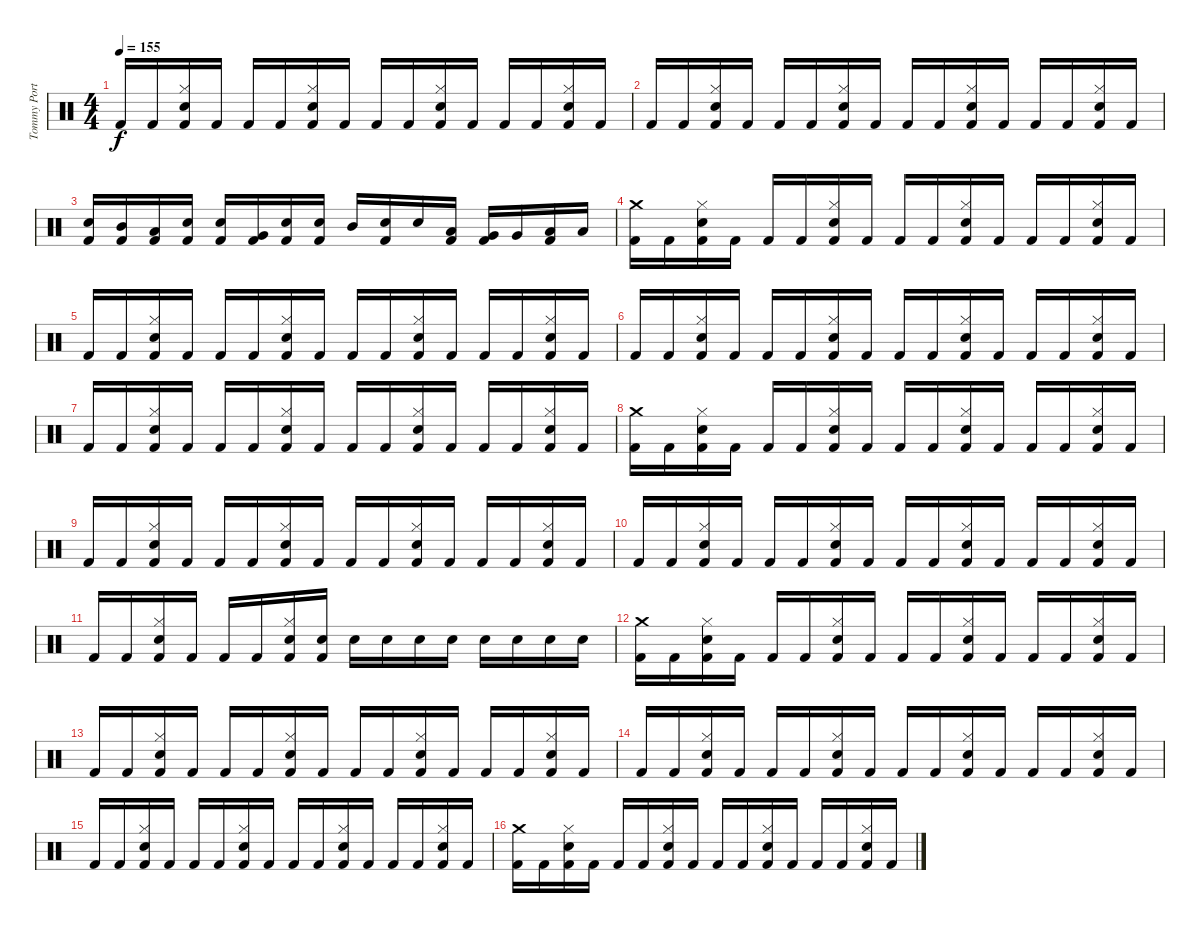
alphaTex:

\track ("Tommy Portino" "Tommy Port") {instrument percussion}
\staff {score}
\articulation defaults
\ts (4 4)
\tempo 155
\clef neutral
\ks c "Kick (hit) 2".16{dy f} "Kick (hit) 2".16
("Hi-Hat (closed)" "Electric Snare (hit)" "Kick (hit) 2").16 "Kick (hit) 2".16 "Kick (hit) 2".16 "Kick (hit) 2".16 ("Hi-Hat (closed)" "Electric Snare (hit)" "Kick (hit) 2").16 "Kick (hit) 2".16 "Kick (hit) 2".16 "Kick (hit) 2".16 ("Hi-Hat (closed)" "Electric Snare (hit)" "Kick (hit) 2").16 "Kick (hit) 2".16 "Kick (hit) 2".16 "Kick (hit) 2".16 ("Hi-Hat (closed)" "Electric Snare (hit)" "Kick (hit) 2").16 "Kick (hit) 2".16 |
"Kick (hit) 2".16 "Kick (hit) 2".16 ("Hi-Hat (closed)" "Electric Snare (hit)" "Kick (hit) 2").16 "Kick (hit) 2".16 "Kick (hit) 2".16 "Kick (hit) 2".16 ("Hi-Hat (closed)" "Electric Snare (hit)" "Kick (hit) 2").16 "Kick (hit) 2".16 "Kick (hit) 2".16 "Kick (hit) 2".16 ("Hi-Hat (closed)" "Electric Snare (hit)" "Kick (hit) 2").16 "Kick (hit) 2".16 "Kick (hit) 2".16 "Kick (hit) 2".16 ("Hi-Hat (closed)" "Electric Snare (hit)" "Kick (hit) 2").16 "Kick (hit) 2".16 |
("Electric Snare (hit)" "Kick (hit) 2").16 ("Mid Tom (hit)" "Kick (hit) 2").16 ("Low Tom (hit)" "Kick (hit) 2").16 ("Electric Snare (hit)" "Kick (hit) 2").16 ("Electric Snare (hit)" "Kick (hit) 2").16 ("Very Low Tom (hit)" "Kick (hit) 2").16 ("Electric Snare (hit)" "Kick (hit) 2").16 ("Electric Snare (hit)" "Kick (hit) 2").16 "Mid Tom (hit)".16 ("Electric Snare (hit)" "Kick (hit) 2").16 "Electric Snare (hit)".16 ("Low Tom (hit)" "Kick (hit) 2").16 ("Very Low Tom (hit)" "Kick (hit) 2").16 "Very Low Tom (hit)".16 ("Low Floor Tom (hit)" "Kick (hit) 2").16 "Low Floor Tom (hit)".16 |
("Crash medium (hit)" "Kick (hit) 2").16 "Kick (hit) 2".16 ("Hi-Hat (closed)" "Electric Snare (hit)" "Kick (hit) 2").16 "Kick (hit) 2".16 "Kick (hit) 2".16 "Kick (hit) 2".16 ("Hi-Hat (closed)" "Electric Snare (hit)" "Kick (hit) 2").16 "Kick (hit) 2".16 "Kick (hit) 2".16 "Kick (hit) 2".16 ("Hi-Hat (closed)" "Electric Snare (hit)" "Kick (hit) 2").16 "Kick (hit) 2".16 "Kick (hit) 2".16 "Kick (hit) 2".16 ("Hi-Hat (closed)" "Electric Snare (hit)" "Kick (hit) 2").16 "Kick (hit) 2".16 |
"Kick (hit) 2".16 "Kick (hit) 2".16 ("Hi-Hat (closed)" "Electric Snare (hit)" "Kick (hit) 2").16 "Kick (hit) 2".16 "Kick (hit) 2".16 "Kick (hit) 2".16 ("Hi-Hat (closed)" "Electric Snare (hit)" "Kick (hit) 2").16 "Kick (hit) 2".16 "Kick (hit) 2".16 "Kick (hit) 2".16 ("Hi-Hat (closed)" "Electric Snare (hit)" "Kick (hit) 2").16 "Kick (hit) 2".16 "Kick (hit) 2".16 "Kick (hit) 2".16 ("Hi-Hat (closed)" "Electric Snare (hit)" "Kick (hit) 2").16 "Kick (hit) 2".16 |
"Kick (hit) 2".16 "Kick (hit) 2".16 ("Hi-Hat (closed)" "Electric Snare (hit)" "Kick (hit) 2").16 "Kick (hit) 2".16 "Kick (hit) 2".16 "Kick (hit) 2".16 ("Hi-Hat (closed)" "Electric Snare (hit)" "Kick (hit) 2").16 "Kick (hit) 2".16 "Kick (hit) 2".16 "Kick (hit) 2".16 ("Hi-Hat (closed)" "Electric Snare (hit)" "Kick (hit) 2").16 "Kick (hit) 2".16 "Kick (hit) 2".16 "Kick (hit) 2".16 ("Hi-Hat (closed)" "Electric Snare (hit)" "Kick (hit) 2").16 "Kick (hit) 2".16 |
"Kick (hit) 2".16 "Kick (hit) 2".16 ("Hi-Hat (closed)" "Electric Snare (hit)" "Kick (hit) 2").16 "Kick (hit) 2".16 "Kick (hit) 2".16 "Kick (hit) 2".16 ("Hi-Hat (closed)" "Electric Snare (hit)" "Kick (hit) 2").16 "Kick (hit) 2".16 "Kick (hit) 2".16 "Kick (hit) 2".16 ("Hi-Hat (closed)" "Electric Snare (hit)" "Kick (hit) 2").16 "Kick (hit) 2".16 "Kick (hit) 2".16 "Kick (hit) 2".16 ("Hi-Hat (closed)" "Electric Snare (hit)" "Kick (hit) 2").16 "Kick (hit) 2".16 |
("Crash medium (hit)" "Kick (hit) 2").16 "Kick (hit) 2".16 ("Hi-Hat (closed)" "Electric Snare (hit)" "Kick (hit) 2").16 "Kick (hit) 2".16 "Kick (hit) 2".16 "Kick (hit) 2".16 ("Hi-Hat (closed)" "Electric Snare (hit)" "Kick (hit) 2").16 "Kick (hit) 2".16 "Kick (hit) 2".16 "Kick (hit) 2".16 ("Hi-Hat (closed)" "Electric Snare (hit)" "Kick (hit) 2").16 "Kick (hit) 2".16 "Kick (hit) 2".16 "Kick (hit) 2".16 ("Hi-Hat (closed)" "Electric Snare (hit)" "Kick (hit) 2").16 "Kick (hit) 2".16 |
"Kick (hit) 2".16 "Kick (hit) 2".16 ("Hi-Hat (closed)" "Electric Snare (hit)" "Kick (hit) 2").16 "Kick (hit) 2".16 "Kick (hit) 2".16 "Kick (hit) 2".16 ("Hi-Hat (closed)" "Electric Snare (hit)" "Kick (hit) 2").16 "Kick (hit) 2".16 "Kick (hit) 2".16 "Kick (hit) 2".16 ("Hi-Hat (closed)" "Electric Snare (hit)" "Kick (hit) 2").16 "Kick (hit) 2".16 "Kick (hit) 2".16 "Kick (hit) 2".16 ("Hi-Hat (closed)" "Electric Snare (hit)" "Kick (hit) 2").16 "Kick (hit) 2".16 |
"Kick (hit) 2".16 "Kick (hit) 2".16 ("Hi-Hat (closed)" "Electric Snare (hit)" "Kick (hit) 2").16 "Kick (hit) 2".16 "Kick (hit) 2".16 "Kick (hit) 2".16 ("Hi-Hat (closed)" "Electric Snare (hit)" "Kick (hit) 2").16 "Kick (hit) 2".16 "Kick (hit) 2".16 "Kick (hit) 2".16 ("Hi-Hat (closed)" "Electric Snare (hit)" "Kick (hit) 2").16 "Kick (hit) 2".16 "Kick (hit) 2".16 "Kick (hit) 2".16 ("Hi-Hat (closed)" "Electric Snare (hit)" "Kick (hit) 2").16 "Kick (hit) 2".16 |
"Kick (hit) 2".16 "Kick (hit) 2".16 ("Hi-Hat (closed)" "Electric Snare (hit)" "Kick (hit) 2").16 "Kick (hit) 2".16 "Kick (hit) 2".16 "Kick (hit) 2".16 ("Hi-Hat (closed)" "Electric Snare (hit)" "Kick (hit) 2").16 ("Electric Snare (hit)" "Kick (hit) 2").16 "Electric Snare (hit)".16 "Electric Snare (hit)".16 "Electric Snare (hit)".16 "Electric Snare (hit)".16 "Electric Snare (hit)".16 "Electric Snare (hit)".16 "Electric Snare (hit)".16 "Electric Snare (hit)".16 |
("Crash medium (hit)" "Kick (hit) 2").16 "Kick (hit) 2".16 ("Hi-Hat (closed)" "Electric Snare (hit)" "Kick (hit) 2").16 "Kick (hit) 2".16 "Kick (hit) 2".16 "Kick (hit) 2".16 ("Hi-Hat (closed)" "Electric Snare (hit)" "Kick (hit) 2").16 "Kick (hit) 2".16 "Kick (hit) 2".16 "Kick (hit) 2".16 ("Hi-Hat (closed)" "Electric Snare (hit)" "Kick (hit) 2").16 "Kick (hit) 2".16 "Kick (hit) 2".16 "Kick (hit) 2".16 ("Hi-Hat (closed)" "Electric Snare (hit)" "Kick (hit) 2").16 "Kick (hit) 2".16 |
"Kick (hit) 2".16 "Kick (hit) 2".16 ("Hi-Hat (closed)" "Electric Snare (hit)" "Kick (hit) 2").16 "Kick (hit) 2".16 "Kick (hit) 2".16 "Kick (hit) 2".16 ("Hi-Hat (closed)" "Electric Snare (hit)" "Kick (hit) 2").16 "Kick (hit) 2".16 "Kick (hit) 2".16 "Kick (hit) 2".16 ("Hi-Hat (closed)" "Electric Snare (hit)" "Kick (hit) 2").16 "Kick (hit) 2".16 "Kick (hit) 2".16 "Kick (hit) 2".16 ("Hi-Hat (closed)" "Electric Snare (hit)" "Kick (hit) 2").16 "Kick (hit) 2".16 |
"Kick (hit) 2".16 "Kick (hit) 2".16 ("Hi-Hat (closed)" "Electric Snare (hit)" "Kick (hit) 2").16 "Kick (hit) 2".16 "Kick (hit) 2".16 "Kick (hit) 2".16 ("Hi-Hat (closed)" "Electric Snare (hit)" "Kick (hit) 2").16 "Kick (hit) 2".16 "Kick (hit) 2".16 "Kick (hit) 2".16 ("Hi-Hat (closed)" "Electric Snare (hit)" "Kick (hit) 2").16 "Kick (hit) 2".16 "Kick (hit) 2".16 "Kick (hit) 2".16 ("Hi-Hat (closed)" "Electric Snare (hit)" "Kick (hit) 2").16 "Kick (hit) 2".16 |
"Kick (hit) 2".16 "Kick (hit) 2".16 ("Hi-Hat (closed)" "Electric Snare (hit)" "Kick (hit) 2").16 "Kick (hit) 2".16 "Kick (hit) 2".16 "Kick (hit) 2".16 ("Hi-Hat (closed)" "Electric Snare (hit)" "Kick (hit) 2").16 "Kick (hit) 2".16 "Kick (hit) 2".16 "Kick (hit) 2".16 ("Hi-Hat (closed)" "Electric Snare (hit)" "Kick (hit) 2").16 "Kick (hit) 2".16 "Kick (hit) 2".16 "Kick (hit) 2".16 ("Hi-Hat (closed)" "Electric Snare (hit)" "Kick (hit) 2").16 "Kick (hit) 2".16 |
("Crash medium (hit)" "Kick (hit) 2").16 "Kick (hit) 2".16 ("Hi-Hat (closed)" "Electric Snare (hit)" "Kick (hit) 2").16 "Kick (hit) 2".16 "Kick (hit) 2".16 "Kick (hit) 2".16 ("Hi-Hat (closed)" "Electric Snare (hit)" "Kick (hit) 2").16 "Kick (hit) 2".16 "Kick (hit) 2".16 "Kick (hit) 2".16 ("Hi-Hat (closed)" "Electric Snare (hit)" "Kick (hit) 2").16 "Kick (hit) 2".16 "Kick (hit) 2".16 "Kick (hit) 2".16 ("Hi-Hat (closed)" "Electric Snare (hit)" "Kick (hit) 2").16 "Kick (hit) 2".16
